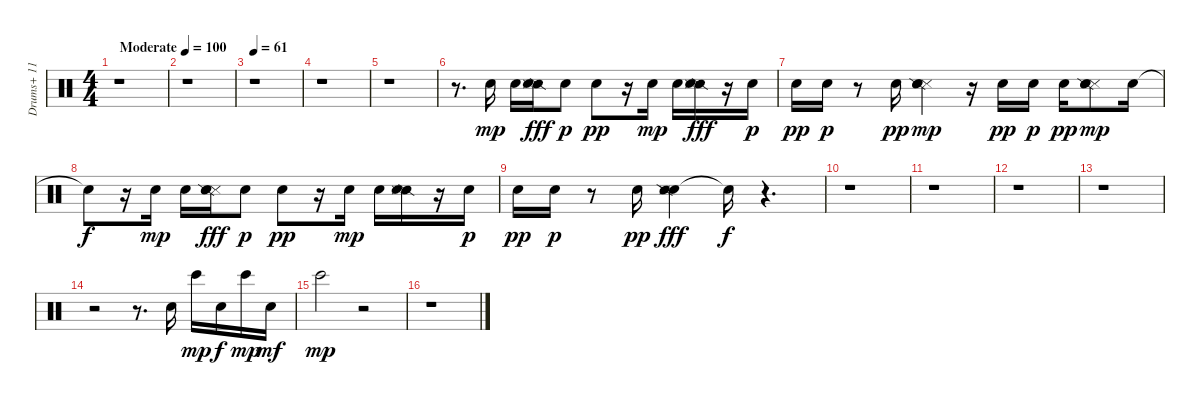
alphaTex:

\track ("Drums+ 11" "Drums+ 11") {instrument percussion}
\staff {score}
\articulation defaults
\ts (4 4)
\tempo (100 "Moderate")
\clef neutral
\ks c
r.1{dy mp} |
r.1 |
\tempo 61
r.1 |
r.1 |
r.1 |
r.8{d} "Hand Clap (hit)".16 "Hand Clap (hit)".16 ("Snare (side stick) 2" "Snare (side stick) 3" "Hand Clap (hit)").16{dy fff} "Hand Clap (hit)".8{dy p} "Hand Clap (hit)".8{dy pp} r.16 "Hand Clap (hit)".16{dy mp} "Hand Clap (hit)".16 ("Snare (side stick) 2" "Hand Clap (hit)" "Snare (side stick) 3").16{dy fff} r.16 "Hand Clap (hit)".16{dy p} |
"Hand Clap (hit)".16{dy pp} "Hand Clap (hit)".16{dy p} r.8 "Hand Clap (hit)".16{dy pp} ("Snare (side stick) 3" "Snare (side stick) 2" "Hand Clap (hit)").4{dy mp} r.16 "Hand Clap (hit)".16{dy pp} "Hand Clap (hit)".16{dy p} "Hand Clap (hit)".16{dy pp} ("Snare (side stick) 3" "Snare (side stick) 2" "Hand Clap (hit)").8{dy mp} "Hand Clap (hit)".16 |
"Snare (hit)"{t}.8{dy f} r.16 "Hand Clap (hit)".16{dy mp} "Hand Clap (hit)".16 ("Snare (side stick) 3" "Hand Clap (hit)" "Snare (side stick) 2").16{dy fff} "Hand Clap (hit)".8{dy p} "Hand Clap (hit)".8{dy pp} r.16 "Hand Clap (hit)".16{dy mp} "Hand Clap (hit)".16 ("Snare (side stick) 2" "Snare (side stick) 3" "Hand Clap (hit)").16 r.16 "Hand Clap (hit)".16{dy p} |
"Hand Clap (hit)".16{dy pp} "Hand Clap (hit)".16{dy p} r.8 "Hand Clap (hit)".16{dy pp} ("Hand Clap (hit)" "Snare (side stick) 3" "Snare (side stick) 2").4{dy fff} "Snare (hit)"{t}.16{dy f} r.4{d} |
r.1 |
r.1 |
r.1 |
r.1 |
r.2 r.8{d} "Snare (hit) 2".16 "Bongo High (hit)".16{dy mp} "Snare (hit) 2".16{dy f} "Bongo High (hit)".16{dy mp} "Snare (hit) 2".16{dy mf} |
"Bongo High (hit)".2{dy mp} r.2 |
r.1
